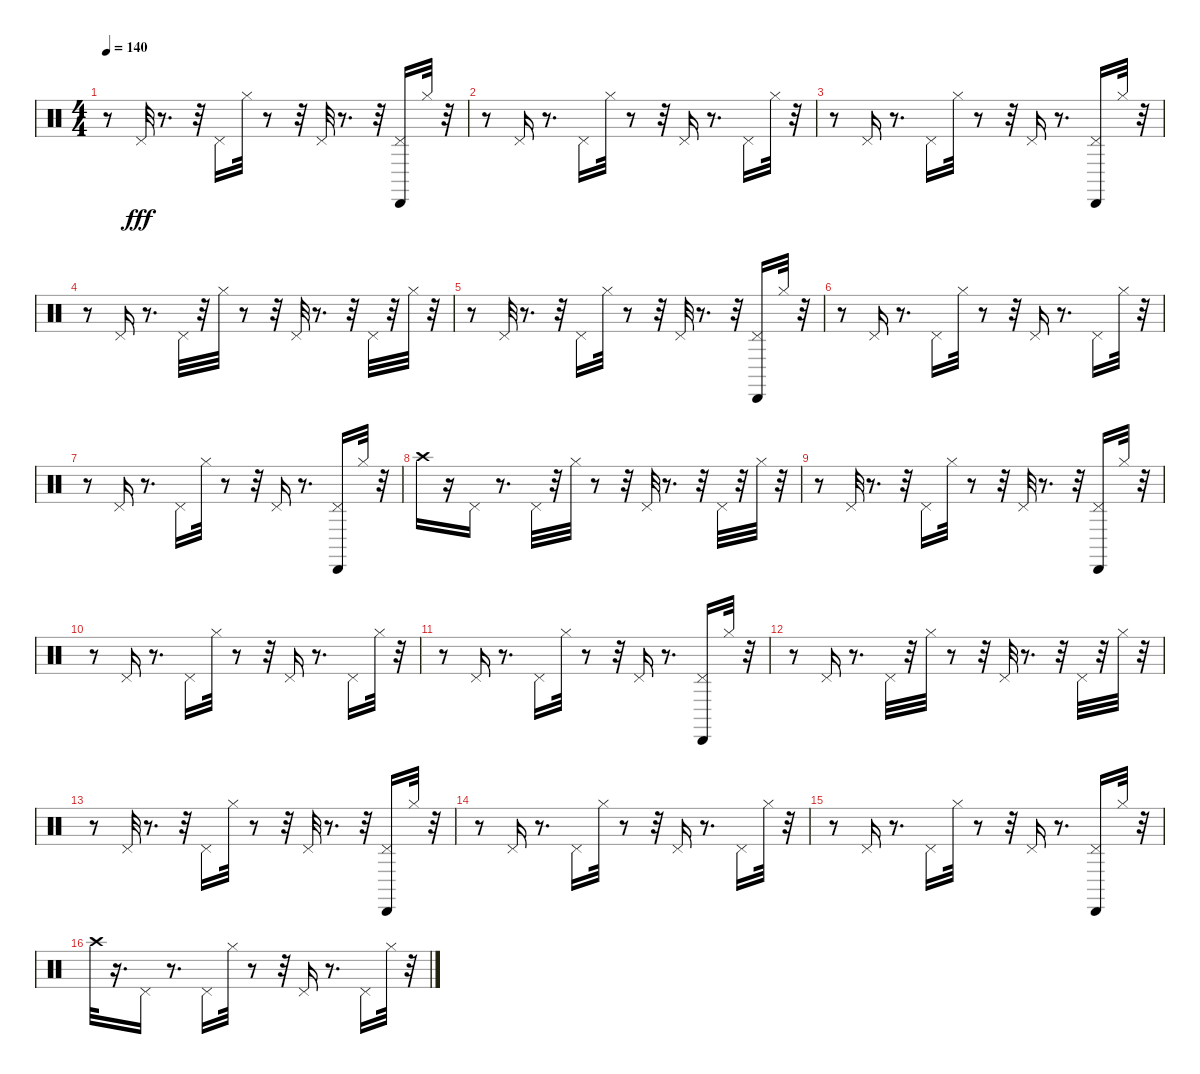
\track "" {instrument percussion}
\staff {score}
\articulation defaults
\ts (4 4)
\tempo 140
\clef neutral
\ks c
r.8{dy fff} "Pedal Hi-Hat (hit)".32 r.8{d} r.32 "Pedal Hi-Hat (hit)".16 "Hi-Hat (closed)".32 r.8 r.32 "Pedal Hi-Hat (hit)".32 r.8{d} r.32 ("Cabasa (hit)" "Pedal Hi-Hat (hit)").16 "Hi-Hat (closed)".32 r.32 |
r.8 "Pedal Hi-Hat (hit)".16 r.8{d} "Pedal Hi-Hat (hit)".16 "Hi-Hat (closed)".32 r.8 r.32 "Pedal Hi-Hat (hit)".16 r.8{d} "Pedal Hi-Hat (hit)".16 "Hi-Hat (closed)".32 r.32 |
r.8 "Pedal Hi-Hat (hit)".16 r.8{d} "Pedal Hi-Hat (hit)".16 "Hi-Hat (closed)".32 r.8 r.32 "Pedal Hi-Hat (hit)".16 r.8{d} ("Cabasa (hit)" "Pedal Hi-Hat (hit)").16 "Hi-Hat (closed)".32 r.32 |
r.8 "Pedal Hi-Hat (hit)".16 r.8{d} "Pedal Hi-Hat (hit)".32 r.32 "Hi-Hat (closed)".32 r.8 r.32 "Pedal Hi-Hat (hit)".32 r.8{d} r.32 "Pedal Hi-Hat (hit)".32 r.32 "Hi-Hat (closed)".32 r.32 |
r.8 "Pedal Hi-Hat (hit)".32 r.8{d} r.32 "Pedal Hi-Hat (hit)".16 "Hi-Hat (closed)".32 r.8 r.32 "Pedal Hi-Hat (hit)".32 r.8{d} r.32 ("Cabasa (hit)" "Pedal Hi-Hat (hit)").16 "Hi-Hat (closed)".32 r.32 |
r.8 "Pedal Hi-Hat (hit)".16 r.8{d} "Pedal Hi-Hat (hit)".16 "Hi-Hat (closed)".32 r.8 r.32 "Pedal Hi-Hat (hit)".16 r.8{d} "Pedal Hi-Hat (hit)".16 "Hi-Hat (closed)".32 r.32 |
r.8 "Pedal Hi-Hat (hit)".16 r.8{d} "Pedal Hi-Hat (hit)".16 "Hi-Hat (closed)".32 r.8 r.32 "Pedal Hi-Hat (hit)".16 r.8{d} ("Cabasa (hit)" "Pedal Hi-Hat (hit)").16 "Hi-Hat (closed)".32 r.32 |
"Crash high (hit)".16 r.16 "Pedal Hi-Hat (hit)".16 r.8{d} "Pedal Hi-Hat (hit)".32 r.32 "Hi-Hat (closed)".32 r.8 r.32 "Pedal Hi-Hat (hit)".32 r.8{d} r.32 "Pedal Hi-Hat (hit)".32 r.32 "Hi-Hat (closed)".32 r.32 |
r.8 "Pedal Hi-Hat (hit)".32 r.8{d} r.32 "Pedal Hi-Hat (hit)".16 "Hi-Hat (closed)".32 r.8 r.32 "Pedal Hi-Hat (hit)".32 r.8{d} r.32 ("Cabasa (hit)" "Pedal Hi-Hat (hit)").16 "Hi-Hat (closed)".32 r.32 |
r.8 "Pedal Hi-Hat (hit)".16 r.8{d} "Pedal Hi-Hat (hit)".16 "Hi-Hat (closed)".32 r.8 r.32 "Pedal Hi-Hat (hit)".16 r.8{d} "Pedal Hi-Hat (hit)".16 "Hi-Hat (closed)".32 r.32 |
r.8 "Pedal Hi-Hat (hit)".16 r.8{d} "Pedal Hi-Hat (hit)".16 "Hi-Hat (closed)".32 r.8 r.32 "Pedal Hi-Hat (hit)".16 r.8{d} ("Cabasa (hit)" "Pedal Hi-Hat (hit)").16 "Hi-Hat (closed)".32 r.32 |
r.8 "Pedal Hi-Hat (hit)".16 r.8{d} "Pedal Hi-Hat (hit)".32 r.32 "Hi-Hat (closed)".32 r.8 r.32 "Pedal Hi-Hat (hit)".32 r.8{d} r.32 "Pedal Hi-Hat (hit)".32 r.32 "Hi-Hat (closed)".32 r.32 |
r.8 "Pedal Hi-Hat (hit)".32 r.8{d} r.32 "Pedal Hi-Hat (hit)".16 "Hi-Hat (closed)".32 r.8 r.32 "Pedal Hi-Hat (hit)".32 r.8{d} r.32 ("Cabasa (hit)" "Pedal Hi-Hat (hit)").16 "Hi-Hat (closed)".32 r.32 |
r.8 "Pedal Hi-Hat (hit)".16 r.8{d} "Pedal Hi-Hat (hit)".16 "Hi-Hat (closed)".32 r.8 r.32 "Pedal Hi-Hat (hit)".16 r.8{d} "Pedal Hi-Hat (hit)".16 "Hi-Hat (closed)".32 r.32 |
r.8 "Pedal Hi-Hat (hit)".16 r.8{d} "Pedal Hi-Hat (hit)".16 "Hi-Hat (closed)".32 r.8 r.32 "Pedal Hi-Hat (hit)".16 r.8{d} ("Cabasa (hit)" "Pedal Hi-Hat (hit)").16 "Hi-Hat (closed)".32 r.32 |
"Crash high (hit)".32 r.16{d} "Pedal Hi-Hat (hit)".16 r.8{d} "Pedal Hi-Hat (hit)".16 "Hi-Hat (closed)".32 r.8 r.32 "Pedal Hi-Hat (hit)".16 r.8{d} "Pedal Hi-Hat (hit)".16 "Hi-Hat (closed)".32 r.32
